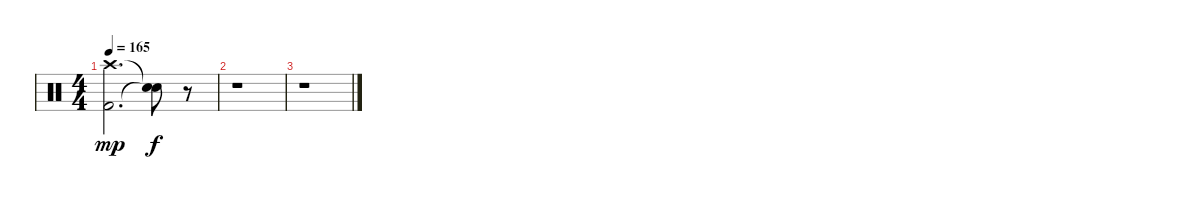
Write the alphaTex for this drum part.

\track "" {instrument percussion}
\staff {score}
\articulation defaults
\ts (4 4)
\tempo 165
\clef neutral
\ks c
("Crash high (hit)" "Kick (hit) 2").2{d dy mp} ("Snare (hit)"{t} "Snare (hit)"{t}).8{dy f} r.8 |
r.1 |
r.1
